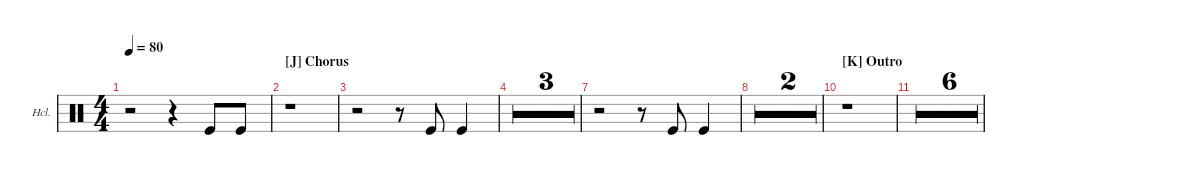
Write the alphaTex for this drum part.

\defaultSystemsLayout 4
\hideDynamics
\bracketExtendMode groupsimilarinstruments
\firstSystemTrackNameOrientation horizontal
\otherSystemsTrackNameOrientation horizontal
\track ("Hand Clap" "Hcl.") {multiBarRest instrument percussion}
\staff {score}
\articulation defaults
\ts (4 4)
\tempo 80
\clef neutral
\ks c
r.2{dy mp} r.4 "Kick (hit)".8 "Kick (hit)".8 |
\section ("J" "Chorus")
r.1 |
r.2 r.8 "Kick (hit)".8 "Kick (hit)".4 |
r.1 |
r.1 |
r.1 |
r.2 r.8 "Kick (hit)".8 "Kick (hit)".4 |
r.1 |
r.1 |
\section ("K" "Outro")
r.1 |
r.1 |
r.1 |
r.1 |
r.1 |
r.1 |
r.1
